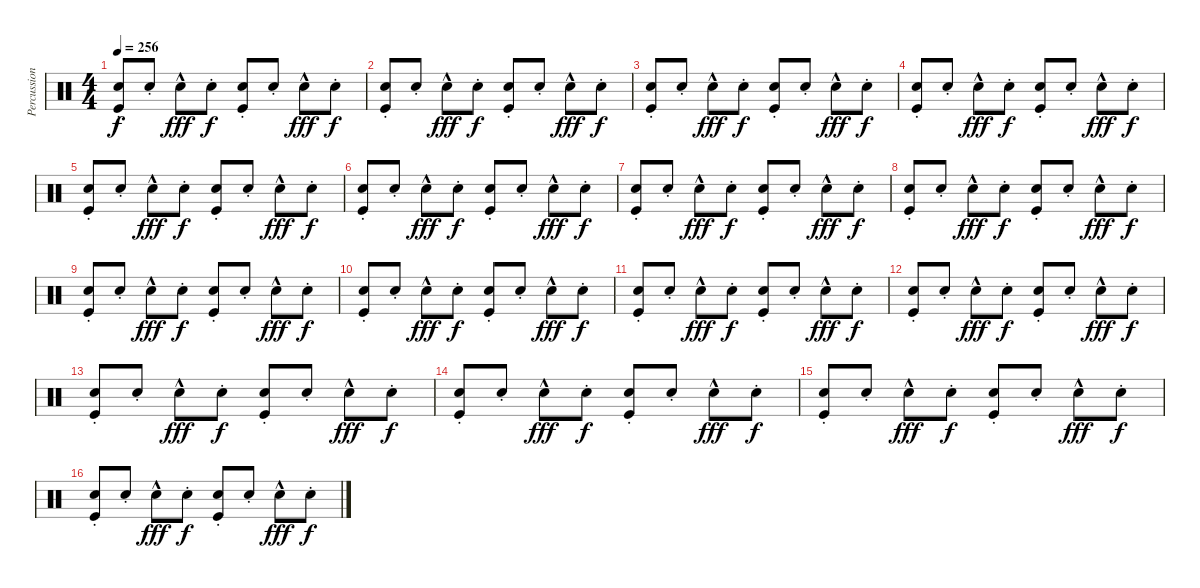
\track ("Percussion" "Percussion") {instrument percussion}
\staff {score}
\articulation defaults
\ts (4 4)
\tempo 256
\clef neutral
\ks c
("Snare (hit) 2"{st} "Kick (hit)").8{dy f} "Snare (hit) 2"{st}.8 "Snare (hit) 2"{hac}.8{dy fff} "Snare (hit) 2"{st}.8{dy f} ("Snare (hit) 2"{st} "Kick (hit)").8 "Snare (hit) 2"{st}.8 "Snare (hit) 2"{hac}.8{dy fff} "Snare (hit) 2"{st}.8{dy f} |
("Snare (hit) 2"{st} "Kick (hit)").8 "Snare (hit) 2"{st}.8 "Snare (hit) 2"{hac}.8{dy fff} "Snare (hit) 2"{st}.8{dy f} ("Snare (hit) 2"{st} "Kick (hit)").8 "Snare (hit) 2"{st}.8 "Snare (hit) 2"{hac}.8{dy fff} "Snare (hit) 2"{st}.8{dy f} |
("Snare (hit) 2"{st} "Kick (hit)").8 "Snare (hit) 2"{st}.8 "Snare (hit) 2"{hac}.8{dy fff} "Snare (hit) 2"{st}.8{dy f} ("Snare (hit) 2"{st} "Kick (hit)").8 "Snare (hit) 2"{st}.8 "Snare (hit) 2"{hac}.8{dy fff} "Snare (hit) 2"{st}.8{dy f} |
("Snare (hit) 2"{st} "Kick (hit)").8 "Snare (hit) 2"{st}.8 "Snare (hit) 2"{hac}.8{dy fff} "Snare (hit) 2"{st}.8{dy f} ("Snare (hit) 2"{st} "Kick (hit)").8 "Snare (hit) 2"{st}.8 "Snare (hit) 2"{hac}.8{dy fff} "Snare (hit) 2"{st}.8{dy f} |
("Snare (hit) 2"{st} "Kick (hit)").8 "Snare (hit) 2"{st}.8 "Snare (hit) 2"{hac}.8{dy fff} "Snare (hit) 2"{st}.8{dy f} ("Snare (hit) 2"{st} "Kick (hit)").8 "Snare (hit) 2"{st}.8 "Snare (hit) 2"{hac}.8{dy fff} "Snare (hit) 2"{st}.8{dy f} |
("Snare (hit) 2"{st} "Kick (hit)").8 "Snare (hit) 2"{st}.8 "Snare (hit) 2"{hac}.8{dy fff} "Snare (hit) 2"{st}.8{dy f} ("Snare (hit) 2"{st} "Kick (hit)").8 "Snare (hit) 2"{st}.8 "Snare (hit) 2"{hac}.8{dy fff} "Snare (hit) 2"{st}.8{dy f} |
("Snare (hit) 2"{st} "Kick (hit)").8 "Snare (hit) 2"{st}.8 "Snare (hit) 2"{hac}.8{dy fff} "Snare (hit) 2"{st}.8{dy f} ("Snare (hit) 2"{st} "Kick (hit)").8 "Snare (hit) 2"{st}.8 "Snare (hit) 2"{hac}.8{dy fff} "Snare (hit) 2"{st}.8{dy f} |
("Snare (hit) 2"{st} "Kick (hit)").8 "Snare (hit) 2"{st}.8 "Snare (hit) 2"{hac}.8{dy fff} "Snare (hit) 2"{st}.8{dy f} ("Snare (hit) 2"{st} "Kick (hit)").8 "Snare (hit) 2"{st}.8 "Snare (hit) 2"{hac}.8{dy fff} "Snare (hit) 2"{st}.8{dy f} |
("Snare (hit) 2"{st} "Kick (hit)").8 "Snare (hit) 2"{st}.8 "Snare (hit) 2"{hac}.8{dy fff} "Snare (hit) 2"{st}.8{dy f} ("Snare (hit) 2"{st} "Kick (hit)").8 "Snare (hit) 2"{st}.8 "Snare (hit) 2"{hac}.8{dy fff} "Snare (hit) 2"{st}.8{dy f} |
("Snare (hit) 2"{st} "Kick (hit)").8 "Snare (hit) 2"{st}.8 "Snare (hit) 2"{hac}.8{dy fff} "Snare (hit) 2"{st}.8{dy f} ("Snare (hit) 2"{st} "Kick (hit)").8 "Snare (hit) 2"{st}.8 "Snare (hit) 2"{hac}.8{dy fff} "Snare (hit) 2"{st}.8{dy f} |
("Snare (hit) 2"{st} "Kick (hit)").8 "Snare (hit) 2"{st}.8 "Snare (hit) 2"{hac}.8{dy fff} "Snare (hit) 2"{st}.8{dy f} ("Snare (hit) 2"{st} "Kick (hit)").8 "Snare (hit) 2"{st}.8 "Snare (hit) 2"{hac}.8{dy fff} "Snare (hit) 2"{st}.8{dy f} |
("Snare (hit) 2"{st} "Kick (hit)").8 "Snare (hit) 2"{st}.8 "Snare (hit) 2"{hac}.8{dy fff} "Snare (hit) 2"{st}.8{dy f} ("Snare (hit) 2"{st} "Kick (hit)").8 "Snare (hit) 2"{st}.8 "Snare (hit) 2"{hac}.8{dy fff} "Snare (hit) 2"{st}.8{dy f} |
("Snare (hit) 2"{st} "Kick (hit)").8 "Snare (hit) 2"{st}.8 "Snare (hit) 2"{hac}.8{dy fff} "Snare (hit) 2"{st}.8{dy f} ("Snare (hit) 2"{st} "Kick (hit)").8 "Snare (hit) 2"{st}.8 "Snare (hit) 2"{hac}.8{dy fff} "Snare (hit) 2"{st}.8{dy f} |
("Snare (hit) 2"{st} "Kick (hit)").8 "Snare (hit) 2"{st}.8 "Snare (hit) 2"{hac}.8{dy fff} "Snare (hit) 2"{st}.8{dy f} ("Snare (hit) 2"{st} "Kick (hit)").8 "Snare (hit) 2"{st}.8 "Snare (hit) 2"{hac}.8{dy fff} "Snare (hit) 2"{st}.8{dy f} |
("Snare (hit) 2"{st} "Kick (hit)").8 "Snare (hit) 2"{st}.8 "Snare (hit) 2"{hac}.8{dy fff} "Snare (hit) 2"{st}.8{dy f} ("Snare (hit) 2"{st} "Kick (hit)").8 "Snare (hit) 2"{st}.8 "Snare (hit) 2"{hac}.8{dy fff} "Snare (hit) 2"{st}.8{dy f} |
("Snare (hit) 2"{st} "Kick (hit)").8 "Snare (hit) 2"{st}.8 "Snare (hit) 2"{hac}.8{dy fff} "Snare (hit) 2"{st}.8{dy f} ("Snare (hit) 2"{st} "Kick (hit)").8 "Snare (hit) 2"{st}.8 "Snare (hit) 2"{hac}.8{dy fff} "Snare (hit) 2"{st}.8{dy f}
